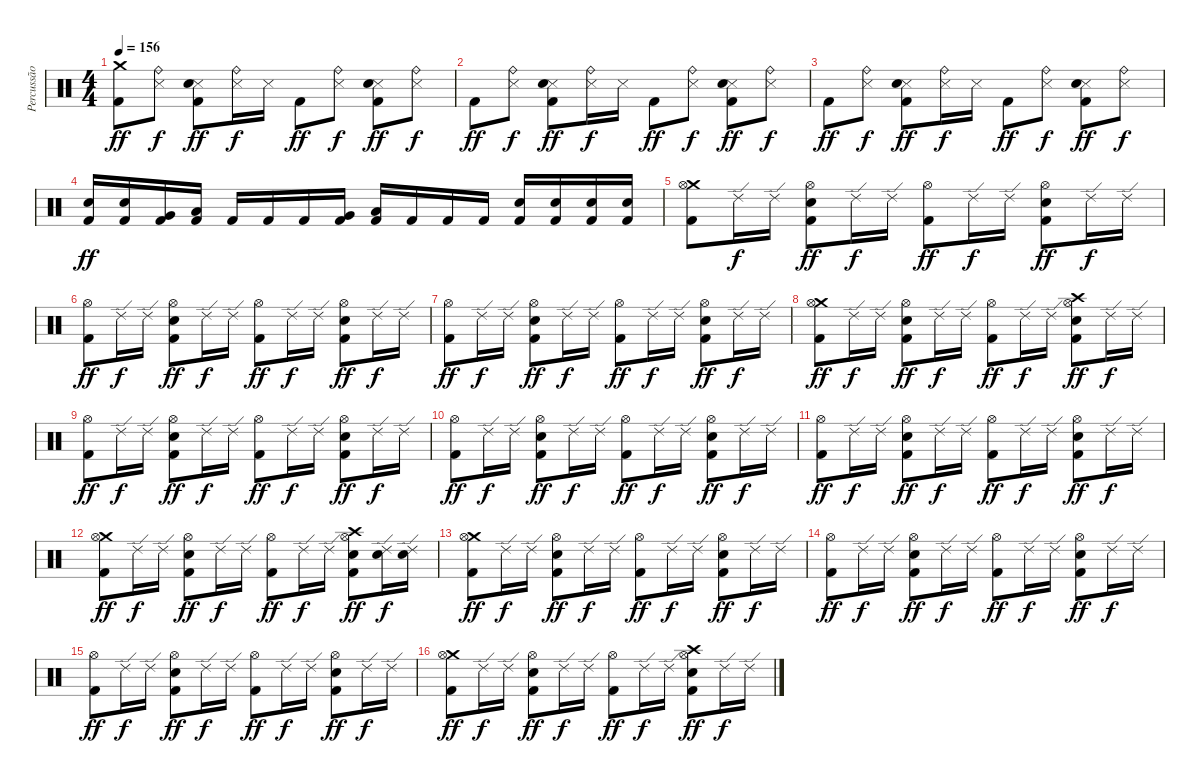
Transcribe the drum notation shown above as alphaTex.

\track ("Percussão" "Percussão") {instrument percussion}
\staff {score}
\articulation defaults
\ts (4 4)
\tempo 156
\clef neutral
\ks c
("Crash medium (hit)" "Kick (hit) 2").8{dy ff} ("Snare (side stick) 3" "Ride (bell)").8{dy f} ("Snare (side stick) 3" "Snare (hit) 2" "Kick (hit) 2").8{dy ff} ("Snare (side stick) 3" "Ride (bell)").16{dy f} "Snare (side stick) 3".16 "Kick (hit) 2".8{dy ff} ("Snare (side stick) 3" "Ride (bell)").8{dy f} ("Snare (side stick) 3" "Snare (hit) 2" "Kick (hit) 2").8{dy ff} ("Snare (side stick) 3" "Ride (bell)").8{dy f} |
"Kick (hit) 2".8{dy ff} ("Snare (side stick) 3" "Ride (bell)").8{dy f} ("Snare (side stick) 3" "Snare (hit) 2" "Kick (hit) 2").8{dy ff} ("Snare (side stick) 3" "Ride (bell)").16{dy f} "Snare (side stick) 3".16 "Kick (hit) 2".8{dy ff} ("Snare (side stick) 3" "Ride (bell)").8{dy f} ("Snare (side stick) 3" "Snare (hit) 2" "Kick (hit) 2").8{dy ff} ("Snare (side stick) 3" "Ride (bell)").8{dy f} |
"Kick (hit) 2".8{dy ff} ("Snare (side stick) 3" "Ride (bell)").8{dy f} ("Snare (side stick) 3" "Snare (hit) 2" "Kick (hit) 2").8{dy ff} ("Snare (side stick) 3" "Ride (bell)").16{dy f} "Snare (side stick) 3".16 "Kick (hit) 2".8{dy ff} ("Snare (side stick) 3" "Ride (bell)").8{dy f} ("Snare (side stick) 3" "Snare (hit) 2" "Kick (hit) 2").8{dy ff} ("Snare (side stick) 3" "Ride (bell)").8{dy f} |
("Snare (hit) 2" "Kick (hit) 2").16{dy ff} ("Snare (hit) 2" "Kick (hit) 2").16 ("Very Low Tom (hit)" "Kick (hit) 2").16 ("Low Floor Tom (hit)" "Kick (hit) 2").16 "Kick (hit) 2".16 "Kick (hit) 2".16 "Kick (hit) 2".16 ("Very Low Tom (hit)" "Kick (hit) 2").16 ("Low Floor Tom (hit)" "Kick (hit) 2").16 "Kick (hit) 2".16 "Kick (hit) 2".16 "Kick (hit) 2".16 ("Snare (hit) 2" "Kick (hit) 2").16 ("Snare (hit) 2" "Kick (hit) 2").16 ("Snare (hit) 2" "Kick (hit) 2").16 ("Snare (hit) 2" "Kick (hit) 2").16 |
("Crash medium (hit)" "Hi-Hat (open)" "Kick (hit) 2").8 "Ride (edge) 2".16{dy f} "Ride (edge) 2".16 ("Hi-Hat (open)" "Snare (hit) 2" "Kick (hit) 2").8{dy ff} "Ride (edge) 2".16{dy f} "Ride (edge) 2".16 ("Hi-Hat (open)" "Kick (hit) 2").8{dy ff} "Ride (edge) 2".16{dy f} "Ride (edge) 2".16 ("Hi-Hat (open)" "Snare (hit) 2" "Kick (hit) 2").8{dy ff} "Ride (edge) 2".16{dy f} "Ride (edge) 2".16 |
("Hi-Hat (open)" "Kick (hit) 2").8{dy ff} "Ride (edge) 2".16{dy f} "Ride (edge) 2".16 ("Hi-Hat (open)" "Snare (hit) 2" "Kick (hit) 2").8{dy ff} "Ride (edge) 2".16{dy f} "Ride (edge) 2".16 ("Hi-Hat (open)" "Kick (hit) 2").8{dy ff} "Ride (edge) 2".16{dy f} "Ride (edge) 2".16 ("Hi-Hat (open)" "Snare (hit) 2" "Kick (hit) 2").8{dy ff} "Ride (edge) 2".16{dy f} "Ride (edge) 2".16 |
("Hi-Hat (open)" "Kick (hit) 2").8{dy ff} "Ride (edge) 2".16{dy f} "Ride (edge) 2".16 ("Hi-Hat (open)" "Snare (hit) 2" "Kick (hit) 2").8{dy ff} "Ride (edge) 2".16{dy f} "Ride (edge) 2".16 ("Hi-Hat (open)" "Kick (hit) 2").8{dy ff} "Ride (edge) 2".16{dy f} "Ride (edge) 2".16 ("Hi-Hat (open)" "Snare (hit) 2" "Kick (hit) 2").8{dy ff} "Ride (edge) 2".16{dy f} "Ride (edge) 2".16 |
("Crash medium (hit)" "Hi-Hat (open)" "Kick (hit) 2").8{dy ff} "Ride (edge) 2".16{dy f} "Ride (edge) 2".16 ("Hi-Hat (open)" "Snare (hit) 2" "Kick (hit) 2").8{dy ff} "Ride (edge) 2".16{dy f} "Ride (edge) 2".16 ("Hi-Hat (open)" "Kick (hit) 2").8{dy ff} "Ride (edge) 2".16{dy f} "Ride (edge) 2".16 ("Hi-Hat (open)" "Crash high (hit)" "Snare (hit) 2" "Kick (hit) 2").8{dy ff} "Ride (edge) 2".16{dy f} "Ride (edge) 2".16 |
("Hi-Hat (open)" "Kick (hit) 2").8{dy ff} "Ride (edge) 2".16{dy f} "Ride (edge) 2".16 ("Hi-Hat (open)" "Snare (hit) 2" "Kick (hit) 2").8{dy ff} "Ride (edge) 2".16{dy f} "Ride (edge) 2".16 ("Hi-Hat (open)" "Kick (hit) 2").8{dy ff} "Ride (edge) 2".16{dy f} "Ride (edge) 2".16 ("Hi-Hat (open)" "Snare (hit) 2" "Kick (hit) 2").8{dy ff} "Ride (edge) 2".16{dy f} "Ride (edge) 2".16 |
("Hi-Hat (open)" "Kick (hit) 2").8{dy ff} "Ride (edge) 2".16{dy f} "Ride (edge) 2".16 ("Hi-Hat (open)" "Snare (hit) 2" "Kick (hit) 2").8{dy ff} "Ride (edge) 2".16{dy f} "Ride (edge) 2".16 ("Hi-Hat (open)" "Kick (hit) 2").8{dy ff} "Ride (edge) 2".16{dy f} "Ride (edge) 2".16 ("Hi-Hat (open)" "Snare (hit) 2" "Kick (hit) 2").8{dy ff} "Ride (edge) 2".16{dy f} "Ride (edge) 2".16 |
("Hi-Hat (open)" "Kick (hit) 2").8{dy ff} "Ride (edge) 2".16{dy f} "Ride (edge) 2".16 ("Hi-Hat (open)" "Snare (hit) 2" "Kick (hit) 2").8{dy ff} "Ride (edge) 2".16{dy f} "Ride (edge) 2".16 ("Hi-Hat (open)" "Kick (hit) 2").8{dy ff} "Ride (edge) 2".16{dy f} "Ride (edge) 2".16 ("Hi-Hat (open)" "Snare (hit) 2" "Kick (hit) 2").8{dy ff} "Ride (edge) 2".16{dy f} "Ride (edge) 2".16 |
("Crash medium (hit)" "Hi-Hat (open)" "Kick (hit) 2").8{dy ff} "Ride (edge) 2".16{dy f} "Ride (edge) 2".16 ("Hi-Hat (open)" "Snare (hit) 2" "Kick (hit) 2").8{dy ff} "Ride (edge) 2".16{dy f} "Ride (edge) 2".16 ("Hi-Hat (open)" "Kick (hit) 2").8{dy ff} "Ride (edge) 2".16{dy f} "Ride (edge) 2".16 ("Hi-Hat (open)" "Crash high (hit)" "Snare (hit) 2" "Kick (hit) 2").8{dy ff} ("Ride (edge) 2" "Snare (hit) 2").16{dy f} ("Ride (edge) 2" "Snare (hit) 2").16 |
("Crash medium (hit)" "Hi-Hat (open)" "Kick (hit) 2").8{dy ff} "Ride (edge) 2".16{dy f} "Ride (edge) 2".16 ("Hi-Hat (open)" "Snare (hit) 2" "Kick (hit) 2").8{dy ff} "Ride (edge) 2".16{dy f} "Ride (edge) 2".16 ("Hi-Hat (open)" "Kick (hit) 2").8{dy ff} "Ride (edge) 2".16{dy f} "Ride (edge) 2".16 ("Hi-Hat (open)" "Snare (hit) 2" "Kick (hit) 2").8{dy ff} "Ride (edge) 2".16{dy f} "Ride (edge) 2".16 |
("Hi-Hat (open)" "Kick (hit) 2").8{dy ff} "Ride (edge) 2".16{dy f} "Ride (edge) 2".16 ("Hi-Hat (open)" "Snare (hit) 2" "Kick (hit) 2").8{dy ff} "Ride (edge) 2".16{dy f} "Ride (edge) 2".16 ("Hi-Hat (open)" "Kick (hit) 2").8{dy ff} "Ride (edge) 2".16{dy f} "Ride (edge) 2".16 ("Hi-Hat (open)" "Snare (hit) 2" "Kick (hit) 2").8{dy ff} "Ride (edge) 2".16{dy f} "Ride (edge) 2".16 |
("Hi-Hat (open)" "Kick (hit) 2").8{dy ff} "Ride (edge) 2".16{dy f} "Ride (edge) 2".16 ("Hi-Hat (open)" "Snare (hit) 2" "Kick (hit) 2").8{dy ff} "Ride (edge) 2".16{dy f} "Ride (edge) 2".16 ("Hi-Hat (open)" "Kick (hit) 2").8{dy ff} "Ride (edge) 2".16{dy f} "Ride (edge) 2".16 ("Hi-Hat (open)" "Snare (hit) 2" "Kick (hit) 2").8{dy ff} "Ride (edge) 2".16{dy f} "Ride (edge) 2".16 |
("Crash medium (hit)" "Hi-Hat (open)" "Kick (hit) 2").8{dy ff} "Ride (edge) 2".16{dy f} "Ride (edge) 2".16 ("Hi-Hat (open)" "Snare (hit) 2" "Kick (hit) 2").8{dy ff} "Ride (edge) 2".16{dy f} "Ride (edge) 2".16 ("Hi-Hat (open)" "Kick (hit) 2").8{dy ff} "Ride (edge) 2".16{dy f} "Ride (edge) 2".16 ("Hi-Hat (open)" "Crash high (hit)" "Snare (hit) 2" "Kick (hit) 2").8{dy ff} "Ride (edge) 2".16{dy f} "Ride (edge) 2".16
